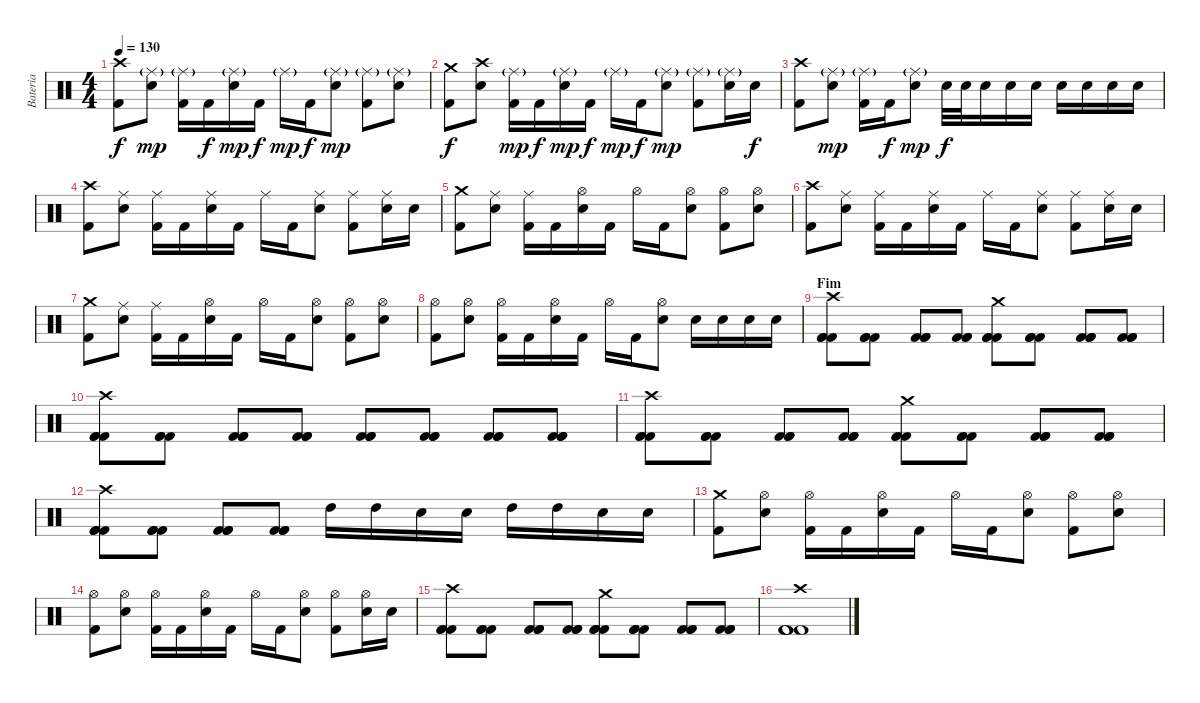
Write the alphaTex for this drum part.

\track ("Bateria" "Bateria") {instrument percussion}
\staff {score}
\articulation defaults
\ts (4 4)
\tempo 130
\clef neutral
\ks c
("Crash high (hit)" "Kick (hit) 2").8{dy f} ("Ride (middle)"{g} "Electric Snare (hit)").8{dy mp} ("Ride (middle)"{g} "Kick (hit) 2").16 "Kick (hit) 2".16{dy f} ("Ride (middle)"{g} "Electric Snare (hit)").16{dy mp} "Kick (hit) 2".16{dy f} "Ride (middle)"{g}.16{dy mp} "Kick (hit) 2".16{dy f} ("Ride (middle)"{g} "Electric Snare (hit)").8{dy mp} ("Ride (middle)"{g} "Kick (hit) 2").8 ("Ride (middle)"{g} "Electric Snare (hit)").8 |
("Crash medium (hit)" "Kick (hit) 2").8{dy f} ("Crash high (hit)" "Electric Snare (hit)").8 ("Ride (middle)"{g} "Kick (hit) 2").16{dy mp} "Kick (hit) 2".16{dy f} ("Ride (middle)"{g} "Electric Snare (hit)").16{dy mp} "Kick (hit) 2".16{dy f} "Ride (middle)"{g}.16{dy mp} "Kick (hit) 2".16{dy f} ("Ride (middle)"{g} "Electric Snare (hit)").8{dy mp} ("Ride (middle)"{g} "Kick (hit) 2").8 ("Ride (middle)"{g} "Electric Snare (hit)").16 "Electric Snare (hit)".16{dy f} |
("Crash high (hit)" "Kick (hit) 2").8 ("Ride (middle)"{g} "Electric Snare (hit)").8{dy mp} ("Ride (middle)"{g} "Kick (hit) 2").16 "Kick (hit) 2".16{dy f} ("Ride (middle)"{g} "Electric Snare (hit)").8{dy mp} "Electric Snare (hit)".32{dy f} "Electric Snare (hit)".32 "Electric Snare (hit)".16 "Electric Snare (hit)".16 "Electric Snare (hit)".16 "Electric Snare (hit)".16 "Electric Snare (hit)".16 "Electric Snare (hit)".16 "Electric Snare (hit)".16 |
("Crash high (hit)" "Kick (hit) 2").8 ("Ride (middle)" "Electric Snare (hit)").8 ("Ride (middle)" "Kick (hit) 2").16 "Kick (hit) 2".16 ("Ride (middle)" "Electric Snare (hit)").16 "Kick (hit) 2".16 "Ride (middle)".16 "Kick (hit) 2".16 ("Ride (middle)" "Electric Snare (hit)").8 ("Ride (middle)" "Kick (hit) 2").8 ("Ride (middle)" "Electric Snare (hit)").16 "Electric Snare (hit)".16 |
("Crash medium (hit)" "Kick (hit) 2").8 ("Ride (middle)" "Electric Snare (hit)").8 ("Ride (middle)" "Kick (hit) 2").16 "Kick (hit) 2".16 ("Hi-Hat (open)" "Electric Snare (hit)").16 "Kick (hit) 2".16 "Hi-Hat (open)".16 "Kick (hit) 2".16 ("Hi-Hat (open)" "Electric Snare (hit)").8 ("Hi-Hat (open)" "Kick (hit) 2").8 ("Hi-Hat (open)" "Electric Snare (hit)").8 |
("Crash high (hit)" "Kick (hit) 2").8 ("Ride (middle)" "Electric Snare (hit)").8 ("Ride (middle)" "Kick (hit) 2").16 "Kick (hit) 2".16 ("Ride (middle)" "Electric Snare (hit)").16 "Kick (hit) 2".16 "Ride (middle)".16 "Kick (hit) 2".16 ("Ride (middle)" "Electric Snare (hit)").8 ("Ride (middle)" "Kick (hit) 2").8 ("Ride (middle)" "Electric Snare (hit)").16 "Electric Snare (hit)".16 |
("Crash medium (hit)" "Kick (hit) 2").8 ("Ride (middle)" "Electric Snare (hit)").8 ("Ride (middle)" "Kick (hit) 2").16 "Kick (hit) 2".16 ("Hi-Hat (open)" "Electric Snare (hit)").16 "Kick (hit) 2".16 "Hi-Hat (open)".16 "Kick (hit) 2".16 ("Hi-Hat (open)" "Electric Snare (hit)").8 ("Hi-Hat (open)" "Kick (hit) 2").8 ("Hi-Hat (open)" "Electric Snare (hit)").8 |
("Hi-Hat (open)" "Kick (hit) 2").8 ("Hi-Hat (open)" "Electric Snare (hit)").8 ("Hi-Hat (open)" "Kick (hit) 2").16 "Kick (hit) 2".16 ("Hi-Hat (open)" "Electric Snare (hit)").16 "Kick (hit) 2".16 "Hi-Hat (open)".16 "Kick (hit) 2".16 ("Hi-Hat (open)" "Electric Snare (hit)").8 "Electric Snare (hit)".16 "Electric Snare (hit)".16 "Electric Snare (hit)".16 "Electric Snare (hit)".16 |
\section ("" "Fim")
("Crash high (hit)" "Kick (hit) 2" "Kick (hit) 2" "Kick (hit) 2").8 ("Kick (hit) 2" "Kick (hit) 2" "Kick (hit) 2").8 ("Kick (hit) 2" "Kick (hit) 2" "Kick (hit) 2").8 ("Kick (hit) 2" "Kick (hit) 2" "Kick (hit) 2").8 ("Crash medium (hit)" "Kick (hit) 2" "Kick (hit) 2" "Kick (hit) 2").8 ("Kick (hit) 2" "Kick (hit) 2" "Kick (hit) 2").8 ("Kick (hit) 2" "Kick (hit) 2" "Kick (hit) 2").8 ("Kick (hit) 2" "Kick (hit) 2" "Kick (hit) 2").8 |
("Crash high (hit)" "Kick (hit) 2" "Kick (hit) 2" "Kick (hit) 2").8 ("Kick (hit) 2" "Kick (hit) 2" "Kick (hit) 2").8 ("Kick (hit) 2" "Kick (hit) 2" "Kick (hit) 2").8 ("Kick (hit) 2" "Kick (hit) 2" "Kick (hit) 2").8 ("Kick (hit) 2" "Kick (hit) 2" "Kick (hit) 2").8 ("Kick (hit) 2" "Kick (hit) 2" "Kick (hit) 2").8 ("Kick (hit) 2" "Kick (hit) 2" "Kick (hit) 2").8 ("Kick (hit) 2" "Kick (hit) 2" "Kick (hit) 2").8 |
("Crash high (hit)" "Kick (hit) 2" "Kick (hit) 2" "Kick (hit) 2").8 ("Kick (hit) 2" "Kick (hit) 2" "Kick (hit) 2").8 ("Kick (hit) 2" "Kick (hit) 2" "Kick (hit) 2").8 ("Kick (hit) 2" "Kick (hit) 2" "Kick (hit) 2").8 ("Crash medium (hit)" "Kick (hit) 2" "Kick (hit) 2" "Kick (hit) 2").8 ("Kick (hit) 2" "Kick (hit) 2" "Kick (hit) 2").8 ("Kick (hit) 2" "Kick (hit) 2" "Kick (hit) 2").8 ("Kick (hit) 2" "Kick (hit) 2" "Kick (hit) 2").8 |
("Crash high (hit)" "Kick (hit) 2" "Kick (hit) 2" "Kick (hit) 2").8 ("Kick (hit) 2" "Kick (hit) 2" "Kick (hit) 2").8 ("Kick (hit) 2" "Kick (hit) 2" "Kick (hit) 2").8 ("Kick (hit) 2" "Kick (hit) 2" "Kick (hit) 2").8 "High Tom (hit)".16 "High Tom (hit)".16 "Electric Snare (hit)".16 "Electric Snare (hit)".16 "High Tom (hit)".16 "High Tom (hit)".16 "Electric Snare (hit)".16 "Electric Snare (hit)".16 |
("Crash medium (hit)" "Kick (hit) 2").8 ("Hi-Hat (open)" "Electric Snare (hit)").8 ("Hi-Hat (open)" "Kick (hit) 2").16 "Kick (hit) 2".16 ("Hi-Hat (open)" "Electric Snare (hit)").16 "Kick (hit) 2".16 "Hi-Hat (open)".16 "Kick (hit) 2".16 ("Hi-Hat (open)" "Electric Snare (hit)").8 ("Hi-Hat (open)" "Kick (hit) 2").8 ("Hi-Hat (open)" "Electric Snare (hit)").8 |
("Hi-Hat (open)" "Kick (hit) 2").8 ("Hi-Hat (open)" "Electric Snare (hit)").8 ("Hi-Hat (open)" "Kick (hit) 2").16 "Kick (hit) 2".16 ("Hi-Hat (open)" "Electric Snare (hit)").16 "Kick (hit) 2".16 "Hi-Hat (open)".16 "Kick (hit) 2".16 ("Hi-Hat (open)" "Electric Snare (hit)").8 ("Hi-Hat (open)" "Kick (hit) 2").8 ("Hi-Hat (open)" "Electric Snare (hit)").16 "Electric Snare (hit)".16 |
("Crash high (hit)" "Kick (hit) 2" "Kick (hit) 2" "Kick (hit) 2").8 ("Kick (hit) 2" "Kick (hit) 2" "Kick (hit) 2").8 ("Kick (hit) 2" "Kick (hit) 2" "Kick (hit) 2").8 ("Kick (hit) 2" "Kick (hit) 2" "Kick (hit) 2").8 ("Crash medium (hit)" "Kick (hit) 2" "Kick (hit) 2" "Kick (hit) 2").8 ("Kick (hit) 2" "Kick (hit) 2" "Kick (hit) 2").8 ("Kick (hit) 2" "Kick (hit) 2" "Kick (hit) 2").8 ("Kick (hit) 2" "Kick (hit) 2" "Kick (hit) 2").8 |
("Crash high (hit)" "Kick (hit) 2" "Kick (hit) 2" "Kick (hit) 2").1
